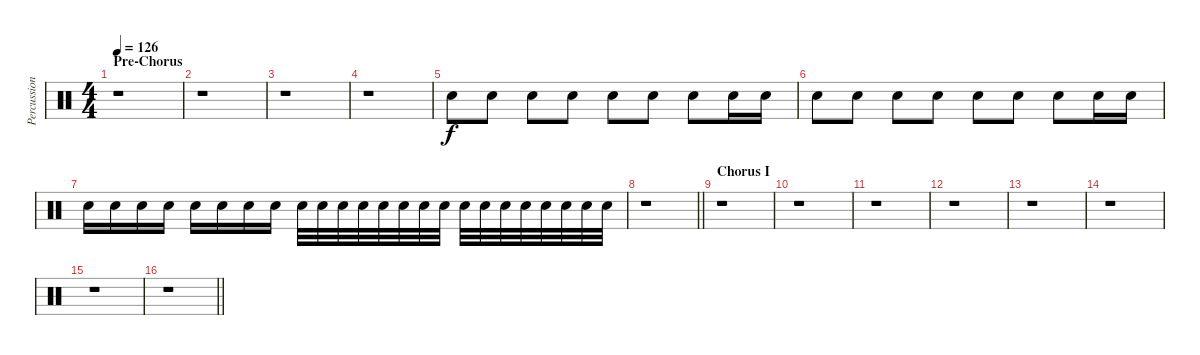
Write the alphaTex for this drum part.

\track ("Percussion" "Percussion") {instrument percussion}
\staff {score}
\articulation defaults
\ts (4 4)
\section ("" "Pre-Chorus")
\tempo 126
\clef neutral
\ks c
r.1{dy f} |
r.1 |
r.1 |
r.1 |
"Snare (hit) 2".8 "Snare (hit) 2".8 "Snare (hit) 2".8 "Snare (hit) 2".8 "Snare (hit) 2".8 "Snare (hit) 2".8 "Snare (hit) 2".8 "Snare (hit) 2".16 "Snare (hit) 2".16 |
"Snare (hit) 2".8 "Snare (hit) 2".8 "Snare (hit) 2".8 "Snare (hit) 2".8 "Snare (hit) 2".8 "Snare (hit) 2".8 "Snare (hit) 2".8 "Snare (hit) 2".16 "Snare (hit) 2".16 |
"Snare (hit) 2".16 "Snare (hit) 2".16 "Snare (hit) 2".16 "Snare (hit) 2".16 "Snare (hit) 2".16 "Snare (hit) 2".16 "Snare (hit) 2".16 "Snare (hit) 2".16 "Snare (hit) 2".32 "Snare (hit) 2".32 "Snare (hit) 2".32 "Snare (hit) 2".32 "Snare (hit) 2".32 "Snare (hit) 2".32 "Snare (hit) 2".32 "Snare (hit) 2".32 "Snare (hit) 2".32 "Snare (hit) 2".32 "Snare (hit) 2".32 "Snare (hit) 2".32 "Snare (hit) 2".32 "Snare (hit) 2".32 "Snare (hit) 2".32 "Snare (hit) 2".32 |
\barLineRight lightlight
r.1 |
\section ("" "Chorus I")
r.1 |
r.1 |
r.1 |
r.1 |
r.1 |
r.1 |
r.1 |
\barLineRight lightlight
r.1
